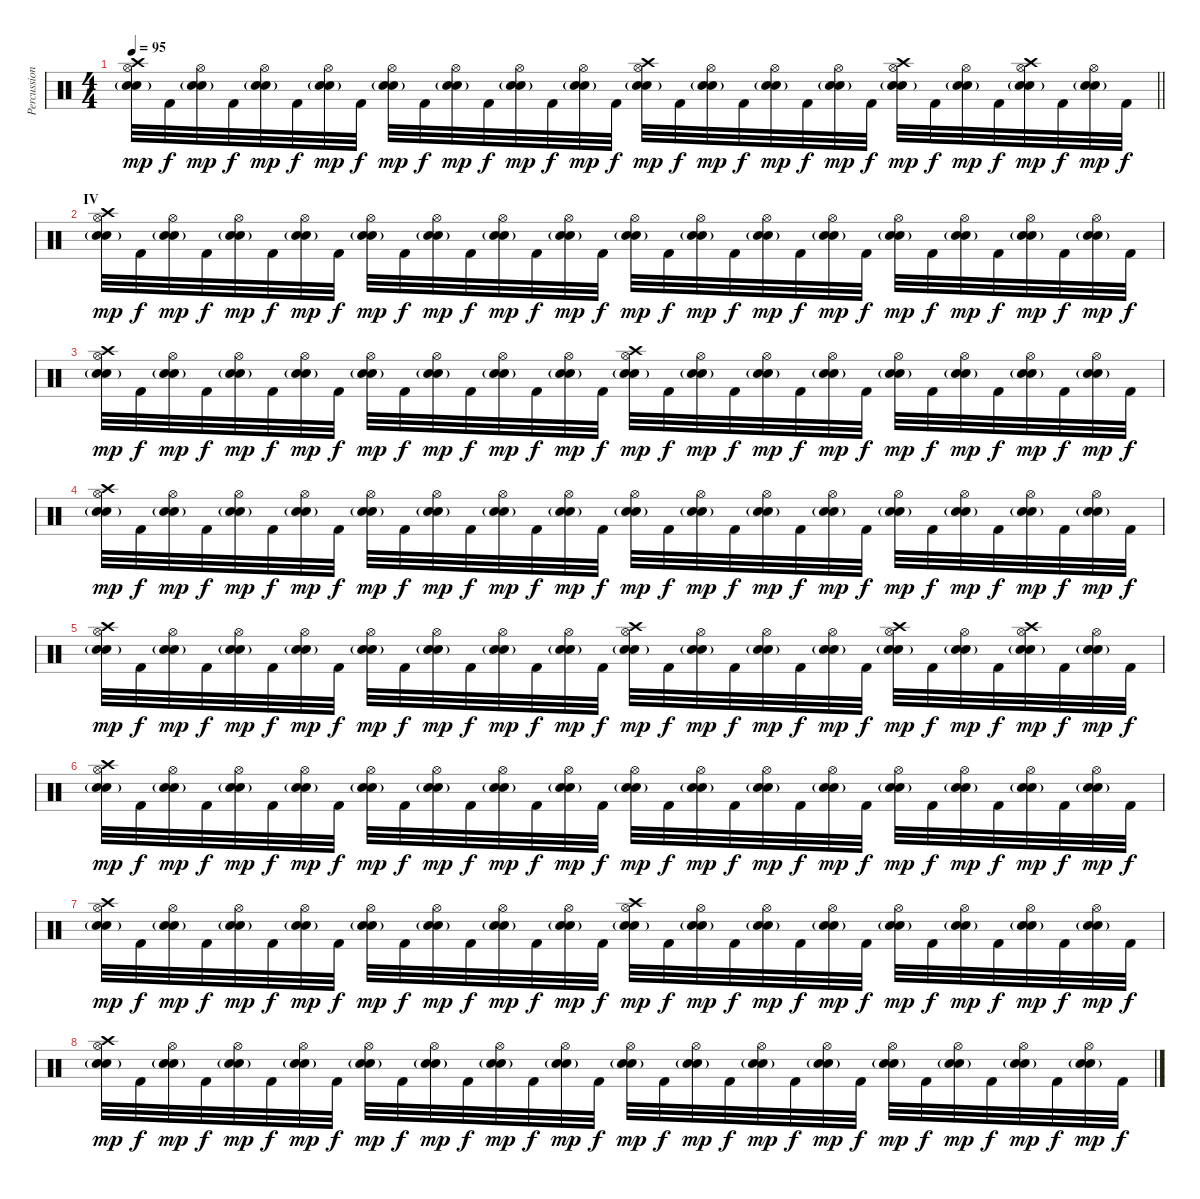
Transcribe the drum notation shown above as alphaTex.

\track ("Percussion" "Percussion") {instrument percussion}
\staff {score}
\articulation defaults
\ts (4 4)
\tempo 95
\clef neutral
\barLineRight lightlight
\ks c
("Crash high (hit)" "Electric Snare (hit)" "Snare (hit) 2"{g} "Hi-Hat (open)").32{dy mp} "Kick (hit) 2".32{dy f} ("Electric Snare (hit)" "Snare (hit) 2"{g} "Hi-Hat (open)").32{dy mp} "Kick (hit) 2".32{dy f} ("Electric Snare (hit)" "Snare (hit) 2"{g} "Hi-Hat (open)").32{dy mp} "Kick (hit) 2".32{dy f} ("Electric Snare (hit)" "Snare (hit) 2"{g} "Hi-Hat (open)").32{dy mp} "Kick (hit) 2".32{dy f} ("Electric Snare (hit)" "Snare (hit) 2"{g} "Hi-Hat (open)").32{dy mp} "Kick (hit) 2".32{dy f} ("Electric Snare (hit)" "Snare (hit) 2"{g} "Hi-Hat (open)").32{dy mp} "Kick (hit) 2".32{dy f} ("Electric Snare (hit)" "Snare (hit) 2"{g} "Hi-Hat (open)").32{dy mp} "Kick (hit) 2".32{dy f} ("Electric Snare (hit)" "Snare (hit) 2"{g} "Hi-Hat (open)").32{dy mp} "Kick (hit) 2".32{dy f} ("Crash high (hit)" "Electric Snare (hit)" "Snare (hit) 2"{g} "Hi-Hat (open)").32{dy mp} "Kick (hit) 2".32{dy f} ("Electric Snare (hit)" "Snare (hit) 2"{g} "Hi-Hat (open)").32{dy mp} "Kick (hit) 2".32{dy f} ("Electric Snare (hit)" "Snare (hit) 2"{g} "Hi-Hat (open)").32{dy mp} "Kick (hit) 2".32{dy f} ("Electric Snare (hit)" "Snare (hit) 2"{g} "Hi-Hat (open)").32{dy mp} "Kick (hit) 2".32{dy f} ("Crash high (hit)" "Electric Snare (hit)" "Snare (hit) 2"{g} "Hi-Hat (open)").32{dy mp} "Kick (hit) 2".32{dy f} ("Electric Snare (hit)" "Snare (hit) 2"{g} "Hi-Hat (open)").32{dy mp} "Kick (hit) 2".32{dy f} ("Crash high (hit)" "Electric Snare (hit)" "Snare (hit) 2"{g} "Hi-Hat (open)").32{dy mp} "Kick (hit) 2".32{dy f} ("Electric Snare (hit)" "Snare (hit) 2"{g} "Hi-Hat (open)").32{dy mp} "Kick (hit) 2".32{dy f} |
\section ("" "IV")
("Crash high (hit)" "Electric Snare (hit)" "Snare (hit) 2"{g} "Hi-Hat (open)").32{dy mp} "Kick (hit) 2".32{dy f} ("Electric Snare (hit)" "Snare (hit) 2"{g} "Hi-Hat (open)").32{dy mp} "Kick (hit) 2".32{dy f} ("Electric Snare (hit)" "Snare (hit) 2"{g} "Hi-Hat (open)").32{dy mp} "Kick (hit) 2".32{dy f} ("Electric Snare (hit)" "Snare (hit) 2"{g} "Hi-Hat (open)").32{dy mp} "Kick (hit) 2".32{dy f} ("Electric Snare (hit)" "Snare (hit) 2"{g} "Hi-Hat (open)").32{dy mp} "Kick (hit) 2".32{dy f} ("Electric Snare (hit)" "Snare (hit) 2"{g} "Hi-Hat (open)").32{dy mp} "Kick (hit) 2".32{dy f} ("Electric Snare (hit)" "Snare (hit) 2"{g} "Hi-Hat (open)").32{dy mp} "Kick (hit) 2".32{dy f} ("Electric Snare (hit)" "Snare (hit) 2"{g} "Hi-Hat (open)").32{dy mp} "Kick (hit) 2".32{dy f} ("Electric Snare (hit)" "Snare (hit) 2"{g} "Hi-Hat (open)").32{dy mp} "Kick (hit) 2".32{dy f} ("Electric Snare (hit)" "Snare (hit) 2"{g} "Hi-Hat (open)").32{dy mp} "Kick (hit) 2".32{dy f} ("Electric Snare (hit)" "Snare (hit) 2"{g} "Hi-Hat (open)").32{dy mp} "Kick (hit) 2".32{dy f} ("Electric Snare (hit)" "Snare (hit) 2"{g} "Hi-Hat (open)").32{dy mp} "Kick (hit) 2".32{dy f} ("Electric Snare (hit)" "Snare (hit) 2"{g} "Hi-Hat (open)").32{dy mp} "Kick (hit) 2".32{dy f} ("Electric Snare (hit)" "Snare (hit) 2"{g} "Hi-Hat (open)").32{dy mp} "Kick (hit) 2".32{dy f} ("Electric Snare (hit)" "Snare (hit) 2"{g} "Hi-Hat (open)").32{dy mp} "Kick (hit) 2".32{dy f} ("Electric Snare (hit)" "Snare (hit) 2"{g} "Hi-Hat (open)").32{dy mp} "Kick (hit) 2".32{dy f} |
("Crash high (hit)" "Electric Snare (hit)" "Snare (hit) 2"{g} "Hi-Hat (open)").32{dy mp} "Kick (hit) 2".32{dy f} ("Electric Snare (hit)" "Snare (hit) 2"{g} "Hi-Hat (open)").32{dy mp} "Kick (hit) 2".32{dy f} ("Electric Snare (hit)" "Snare (hit) 2"{g} "Hi-Hat (open)").32{dy mp} "Kick (hit) 2".32{dy f} ("Electric Snare (hit)" "Snare (hit) 2"{g} "Hi-Hat (open)").32{dy mp} "Kick (hit) 2".32{dy f} ("Electric Snare (hit)" "Snare (hit) 2"{g} "Hi-Hat (open)").32{dy mp} "Kick (hit) 2".32{dy f} ("Electric Snare (hit)" "Snare (hit) 2"{g} "Hi-Hat (open)").32{dy mp} "Kick (hit) 2".32{dy f} ("Electric Snare (hit)" "Snare (hit) 2"{g} "Hi-Hat (open)").32{dy mp} "Kick (hit) 2".32{dy f} ("Electric Snare (hit)" "Snare (hit) 2"{g} "Hi-Hat (open)").32{dy mp} "Kick (hit) 2".32{dy f} ("Crash high (hit)" "Electric Snare (hit)" "Snare (hit) 2"{g} "Hi-Hat (open)").32{dy mp} "Kick (hit) 2".32{dy f} ("Electric Snare (hit)" "Snare (hit) 2"{g} "Hi-Hat (open)").32{dy mp} "Kick (hit) 2".32{dy f} ("Electric Snare (hit)" "Snare (hit) 2"{g} "Hi-Hat (open)").32{dy mp} "Kick (hit) 2".32{dy f} ("Electric Snare (hit)" "Snare (hit) 2"{g} "Hi-Hat (open)").32{dy mp} "Kick (hit) 2".32{dy f} ("Electric Snare (hit)" "Snare (hit) 2"{g} "Hi-Hat (open)").32{dy mp} "Kick (hit) 2".32{dy f} ("Electric Snare (hit)" "Snare (hit) 2"{g} "Hi-Hat (open)").32{dy mp} "Kick (hit) 2".32{dy f} ("Electric Snare (hit)" "Snare (hit) 2"{g} "Hi-Hat (open)").32{dy mp} "Kick (hit) 2".32{dy f} ("Electric Snare (hit)" "Snare (hit) 2"{g} "Hi-Hat (open)").32{dy mp} "Kick (hit) 2".32{dy f} |
("Crash high (hit)" "Electric Snare (hit)" "Snare (hit) 2"{g} "Hi-Hat (open)").32{dy mp} "Kick (hit) 2".32{dy f} ("Electric Snare (hit)" "Snare (hit) 2"{g} "Hi-Hat (open)").32{dy mp} "Kick (hit) 2".32{dy f} ("Electric Snare (hit)" "Snare (hit) 2"{g} "Hi-Hat (open)").32{dy mp} "Kick (hit) 2".32{dy f} ("Electric Snare (hit)" "Snare (hit) 2"{g} "Hi-Hat (open)").32{dy mp} "Kick (hit) 2".32{dy f} ("Electric Snare (hit)" "Snare (hit) 2"{g} "Hi-Hat (open)").32{dy mp} "Kick (hit) 2".32{dy f} ("Electric Snare (hit)" "Snare (hit) 2"{g} "Hi-Hat (open)").32{dy mp} "Kick (hit) 2".32{dy f} ("Electric Snare (hit)" "Snare (hit) 2"{g} "Hi-Hat (open)").32{dy mp} "Kick (hit) 2".32{dy f} ("Electric Snare (hit)" "Snare (hit) 2"{g} "Hi-Hat (open)").32{dy mp} "Kick (hit) 2".32{dy f} ("Electric Snare (hit)" "Snare (hit) 2"{g} "Hi-Hat (open)").32{dy mp} "Kick (hit) 2".32{dy f} ("Electric Snare (hit)" "Snare (hit) 2"{g} "Hi-Hat (open)").32{dy mp} "Kick (hit) 2".32{dy f} ("Electric Snare (hit)" "Snare (hit) 2"{g} "Hi-Hat (open)").32{dy mp} "Kick (hit) 2".32{dy f} ("Electric Snare (hit)" "Snare (hit) 2"{g} "Hi-Hat (open)").32{dy mp} "Kick (hit) 2".32{dy f} ("Electric Snare (hit)" "Snare (hit) 2"{g} "Hi-Hat (open)").32{dy mp} "Kick (hit) 2".32{dy f} ("Electric Snare (hit)" "Snare (hit) 2"{g} "Hi-Hat (open)").32{dy mp} "Kick (hit) 2".32{dy f} ("Electric Snare (hit)" "Snare (hit) 2"{g} "Hi-Hat (open)").32{dy mp} "Kick (hit) 2".32{dy f} ("Electric Snare (hit)" "Snare (hit) 2"{g} "Hi-Hat (open)").32{dy mp} "Kick (hit) 2".32{dy f} |
("Crash high (hit)" "Electric Snare (hit)" "Snare (hit) 2"{g} "Hi-Hat (open)").32{dy mp} "Kick (hit) 2".32{dy f} ("Electric Snare (hit)" "Snare (hit) 2"{g} "Hi-Hat (open)").32{dy mp} "Kick (hit) 2".32{dy f} ("Electric Snare (hit)" "Snare (hit) 2"{g} "Hi-Hat (open)").32{dy mp} "Kick (hit) 2".32{dy f} ("Electric Snare (hit)" "Snare (hit) 2"{g} "Hi-Hat (open)").32{dy mp} "Kick (hit) 2".32{dy f} ("Electric Snare (hit)" "Snare (hit) 2"{g} "Hi-Hat (open)").32{dy mp} "Kick (hit) 2".32{dy f} ("Electric Snare (hit)" "Snare (hit) 2"{g} "Hi-Hat (open)").32{dy mp} "Kick (hit) 2".32{dy f} ("Electric Snare (hit)" "Snare (hit) 2"{g} "Hi-Hat (open)").32{dy mp} "Kick (hit) 2".32{dy f} ("Electric Snare (hit)" "Snare (hit) 2"{g} "Hi-Hat (open)").32{dy mp} "Kick (hit) 2".32{dy f} ("Crash high (hit)" "Electric Snare (hit)" "Snare (hit) 2"{g} "Hi-Hat (open)").32{dy mp} "Kick (hit) 2".32{dy f} ("Electric Snare (hit)" "Snare (hit) 2"{g} "Hi-Hat (open)").32{dy mp} "Kick (hit) 2".32{dy f} ("Electric Snare (hit)" "Snare (hit) 2"{g} "Hi-Hat (open)").32{dy mp} "Kick (hit) 2".32{dy f} ("Electric Snare (hit)" "Snare (hit) 2"{g} "Hi-Hat (open)").32{dy mp} "Kick (hit) 2".32{dy f} ("Crash high (hit)" "Electric Snare (hit)" "Snare (hit) 2"{g} "Hi-Hat (open)").32{dy mp} "Kick (hit) 2".32{dy f} ("Electric Snare (hit)" "Snare (hit) 2"{g} "Hi-Hat (open)").32{dy mp} "Kick (hit) 2".32{dy f} ("Crash high (hit)" "Electric Snare (hit)" "Snare (hit) 2"{g} "Hi-Hat (open)").32{dy mp} "Kick (hit) 2".32{dy f} ("Electric Snare (hit)" "Snare (hit) 2"{g} "Hi-Hat (open)").32{dy mp} "Kick (hit) 2".32{dy f} |
("Crash high (hit)" "Electric Snare (hit)" "Snare (hit) 2"{g} "Hi-Hat (open)").32{dy mp} "Kick (hit) 2".32{dy f} ("Electric Snare (hit)" "Snare (hit) 2"{g} "Hi-Hat (open)").32{dy mp} "Kick (hit) 2".32{dy f} ("Electric Snare (hit)" "Snare (hit) 2"{g} "Hi-Hat (open)").32{dy mp} "Kick (hit) 2".32{dy f} ("Electric Snare (hit)" "Snare (hit) 2"{g} "Hi-Hat (open)").32{dy mp} "Kick (hit) 2".32{dy f} ("Electric Snare (hit)" "Snare (hit) 2"{g} "Hi-Hat (open)").32{dy mp} "Kick (hit) 2".32{dy f} ("Electric Snare (hit)" "Snare (hit) 2"{g} "Hi-Hat (open)").32{dy mp} "Kick (hit) 2".32{dy f} ("Electric Snare (hit)" "Snare (hit) 2"{g} "Hi-Hat (open)").32{dy mp} "Kick (hit) 2".32{dy f} ("Electric Snare (hit)" "Snare (hit) 2"{g} "Hi-Hat (open)").32{dy mp} "Kick (hit) 2".32{dy f} ("Electric Snare (hit)" "Snare (hit) 2"{g} "Hi-Hat (open)").32{dy mp} "Kick (hit) 2".32{dy f} ("Electric Snare (hit)" "Snare (hit) 2"{g} "Hi-Hat (open)").32{dy mp} "Kick (hit) 2".32{dy f} ("Electric Snare (hit)" "Snare (hit) 2"{g} "Hi-Hat (open)").32{dy mp} "Kick (hit) 2".32{dy f} ("Electric Snare (hit)" "Snare (hit) 2"{g} "Hi-Hat (open)").32{dy mp} "Kick (hit) 2".32{dy f} ("Electric Snare (hit)" "Snare (hit) 2"{g} "Hi-Hat (open)").32{dy mp} "Kick (hit) 2".32{dy f} ("Electric Snare (hit)" "Snare (hit) 2"{g} "Hi-Hat (open)").32{dy mp} "Kick (hit) 2".32{dy f} ("Electric Snare (hit)" "Snare (hit) 2"{g} "Hi-Hat (open)").32{dy mp} "Kick (hit) 2".32{dy f} ("Electric Snare (hit)" "Snare (hit) 2"{g} "Hi-Hat (open)").32{dy mp} "Kick (hit) 2".32{dy f} |
("Crash high (hit)" "Electric Snare (hit)" "Snare (hit) 2"{g} "Hi-Hat (open)").32{dy mp} "Kick (hit) 2".32{dy f} ("Electric Snare (hit)" "Snare (hit) 2"{g} "Hi-Hat (open)").32{dy mp} "Kick (hit) 2".32{dy f} ("Electric Snare (hit)" "Snare (hit) 2"{g} "Hi-Hat (open)").32{dy mp} "Kick (hit) 2".32{dy f} ("Electric Snare (hit)" "Snare (hit) 2"{g} "Hi-Hat (open)").32{dy mp} "Kick (hit) 2".32{dy f} ("Electric Snare (hit)" "Snare (hit) 2"{g} "Hi-Hat (open)").32{dy mp} "Kick (hit) 2".32{dy f} ("Electric Snare (hit)" "Snare (hit) 2"{g} "Hi-Hat (open)").32{dy mp} "Kick (hit) 2".32{dy f} ("Electric Snare (hit)" "Snare (hit) 2"{g} "Hi-Hat (open)").32{dy mp} "Kick (hit) 2".32{dy f} ("Electric Snare (hit)" "Snare (hit) 2"{g} "Hi-Hat (open)").32{dy mp} "Kick (hit) 2".32{dy f} ("Crash high (hit)" "Electric Snare (hit)" "Snare (hit) 2"{g} "Hi-Hat (open)").32{dy mp} "Kick (hit) 2".32{dy f} ("Electric Snare (hit)" "Snare (hit) 2"{g} "Hi-Hat (open)").32{dy mp} "Kick (hit) 2".32{dy f} ("Electric Snare (hit)" "Snare (hit) 2"{g} "Hi-Hat (open)").32{dy mp} "Kick (hit) 2".32{dy f} ("Electric Snare (hit)" "Snare (hit) 2"{g} "Hi-Hat (open)").32{dy mp} "Kick (hit) 2".32{dy f} ("Electric Snare (hit)" "Snare (hit) 2"{g} "Hi-Hat (open)").32{dy mp} "Kick (hit) 2".32{dy f} ("Electric Snare (hit)" "Snare (hit) 2"{g} "Hi-Hat (open)").32{dy mp} "Kick (hit) 2".32{dy f} ("Electric Snare (hit)" "Snare (hit) 2"{g} "Hi-Hat (open)").32{dy mp} "Kick (hit) 2".32{dy f} ("Electric Snare (hit)" "Snare (hit) 2"{g} "Hi-Hat (open)").32{dy mp} "Kick (hit) 2".32{dy f} |
("Crash high (hit)" "Electric Snare (hit)" "Snare (hit) 2"{g} "Hi-Hat (open)").32{dy mp} "Kick (hit) 2".32{dy f} ("Electric Snare (hit)" "Snare (hit) 2"{g} "Hi-Hat (open)").32{dy mp} "Kick (hit) 2".32{dy f} ("Electric Snare (hit)" "Snare (hit) 2"{g} "Hi-Hat (open)").32{dy mp} "Kick (hit) 2".32{dy f} ("Electric Snare (hit)" "Snare (hit) 2"{g} "Hi-Hat (open)").32{dy mp} "Kick (hit) 2".32{dy f} ("Electric Snare (hit)" "Snare (hit) 2"{g} "Hi-Hat (open)").32{dy mp} "Kick (hit) 2".32{dy f} ("Electric Snare (hit)" "Snare (hit) 2"{g} "Hi-Hat (open)").32{dy mp} "Kick (hit) 2".32{dy f} ("Electric Snare (hit)" "Snare (hit) 2"{g} "Hi-Hat (open)").32{dy mp} "Kick (hit) 2".32{dy f} ("Electric Snare (hit)" "Snare (hit) 2"{g} "Hi-Hat (open)").32{dy mp} "Kick (hit) 2".32{dy f} ("Electric Snare (hit)" "Snare (hit) 2"{g} "Hi-Hat (open)").32{dy mp} "Kick (hit) 2".32{dy f} ("Electric Snare (hit)" "Snare (hit) 2"{g} "Hi-Hat (open)").32{dy mp} "Kick (hit) 2".32{dy f} ("Electric Snare (hit)" "Snare (hit) 2"{g} "Hi-Hat (open)").32{dy mp} "Kick (hit) 2".32{dy f} ("Electric Snare (hit)" "Snare (hit) 2"{g} "Hi-Hat (open)").32{dy mp} "Kick (hit) 2".32{dy f} ("Electric Snare (hit)" "Snare (hit) 2"{g} "Hi-Hat (open)").32{dy mp} "Kick (hit) 2".32{dy f} ("Electric Snare (hit)" "Snare (hit) 2"{g} "Hi-Hat (open)").32{dy mp} "Kick (hit) 2".32{dy f} ("Electric Snare (hit)" "Snare (hit) 2"{g} "Hi-Hat (open)").32{dy mp} "Kick (hit) 2".32{dy f} ("Electric Snare (hit)" "Snare (hit) 2"{g} "Hi-Hat (open)").32{dy mp} "Kick (hit) 2".32{dy f}
